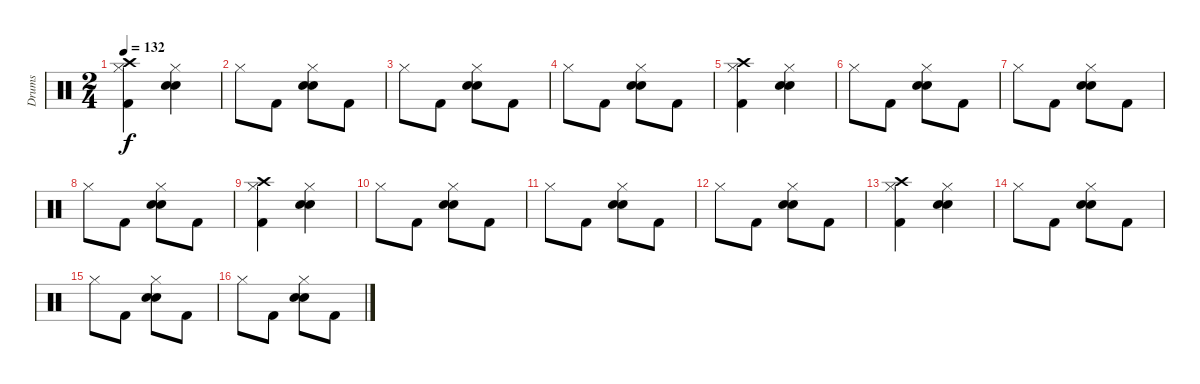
\track ("Drums" "Drums") {instrument percussion}
\staff {score}
\articulation defaults
\ts (2 4)
\tempo 132
\clef neutral
\ks c
("Kick (hit) 2" "Crash high (hit)" "Hi-Hat (closed)").4{dy f} ("Electric Snare (hit)" "Electric Snare (hit)" "Hi-Hat (closed)").4 |
"Hi-Hat (closed)".8 "Kick (hit) 2".8 ("Electric Snare (hit)" "Electric Snare (hit)" "Hi-Hat (closed)").8 "Kick (hit) 2".8 |
"Hi-Hat (closed)".8 "Kick (hit) 2".8 ("Electric Snare (hit)" "Electric Snare (hit)" "Hi-Hat (closed)").8 "Kick (hit) 2".8 |
"Hi-Hat (closed)".8 "Kick (hit) 2".8 ("Electric Snare (hit)" "Electric Snare (hit)" "Hi-Hat (closed)").8 "Kick (hit) 2".8 |
("Kick (hit) 2" "Crash high (hit)" "Hi-Hat (closed)").4 ("Electric Snare (hit)" "Electric Snare (hit)" "Hi-Hat (closed)").4 |
"Hi-Hat (closed)".8 "Kick (hit) 2".8 ("Electric Snare (hit)" "Electric Snare (hit)" "Hi-Hat (closed)").8 "Kick (hit) 2".8 |
"Hi-Hat (closed)".8 "Kick (hit) 2".8 ("Electric Snare (hit)" "Electric Snare (hit)" "Hi-Hat (closed)").8 "Kick (hit) 2".8 |
"Hi-Hat (closed)".8 "Kick (hit) 2".8 ("Electric Snare (hit)" "Electric Snare (hit)" "Hi-Hat (closed)").8 "Kick (hit) 2".8 |
("Kick (hit) 2" "Crash high (hit)" "Hi-Hat (closed)").4 ("Electric Snare (hit)" "Electric Snare (hit)" "Hi-Hat (closed)").4 |
"Hi-Hat (closed)".8 "Kick (hit) 2".8 ("Electric Snare (hit)" "Electric Snare (hit)" "Hi-Hat (closed)").8 "Kick (hit) 2".8 |
"Hi-Hat (closed)".8 "Kick (hit) 2".8 ("Electric Snare (hit)" "Electric Snare (hit)" "Hi-Hat (closed)").8 "Kick (hit) 2".8 |
"Hi-Hat (closed)".8 "Kick (hit) 2".8 ("Electric Snare (hit)" "Electric Snare (hit)" "Hi-Hat (closed)").8 "Kick (hit) 2".8 |
("Kick (hit) 2" "Crash high (hit)" "Hi-Hat (closed)").4 ("Electric Snare (hit)" "Electric Snare (hit)" "Hi-Hat (closed)").4 |
"Hi-Hat (closed)".8 "Kick (hit) 2".8 ("Electric Snare (hit)" "Electric Snare (hit)" "Hi-Hat (closed)").8 "Kick (hit) 2".8 |
"Hi-Hat (closed)".8 "Kick (hit) 2".8 ("Electric Snare (hit)" "Electric Snare (hit)" "Hi-Hat (closed)").8 "Kick (hit) 2".8 |
"Hi-Hat (closed)".8 "Kick (hit) 2".8 ("Electric Snare (hit)" "Electric Snare (hit)" "Hi-Hat (closed)").8 "Kick (hit) 2".8
